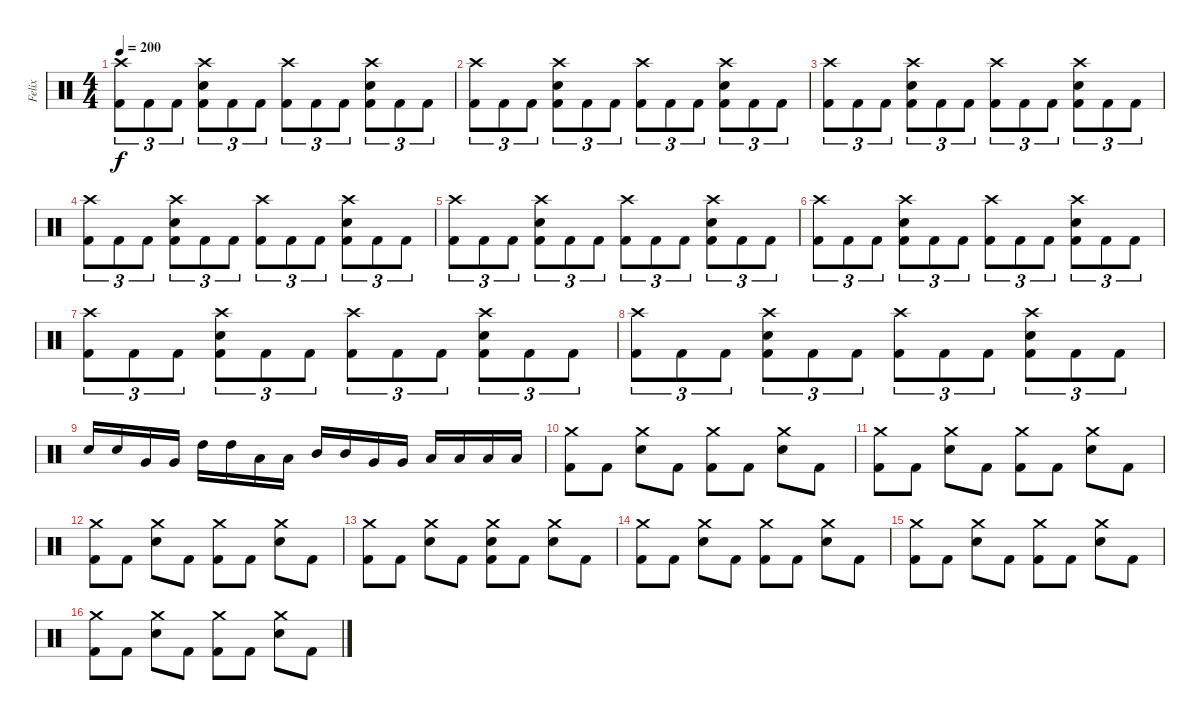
\track ("Felix" "Felix") {instrument percussion}
\staff {score}
\articulation defaults
\ts (4 4)
\tempo 200
\clef neutral
\ks c
("Crash high (hit)" "Kick (hit) 2").8{tu (3 2) dy f} "Kick (hit) 2".8{tu (3 2)} "Kick (hit) 2".8{tu (3 2)} ("Crash high (hit)" "Electric Snare (hit)" "Kick (hit) 2").8{tu (3 2)} "Kick (hit) 2".8{tu (3 2)} "Kick (hit) 2".8{tu (3 2)} ("Crash high (hit)" "Kick (hit) 2").8{tu (3 2)} "Kick (hit) 2".8{tu (3 2)} "Kick (hit) 2".8{tu (3 2)} ("Crash high (hit)" "Electric Snare (hit)" "Kick (hit) 2").8{tu (3 2)} "Kick (hit) 2".8{tu (3 2)} "Kick (hit) 2".8{tu (3 2)} |
("Crash high (hit)" "Kick (hit) 2").8{tu (3 2)} "Kick (hit) 2".8{tu (3 2)} "Kick (hit) 2".8{tu (3 2)} ("Crash high (hit)" "Electric Snare (hit)" "Kick (hit) 2").8{tu (3 2)} "Kick (hit) 2".8{tu (3 2)} "Kick (hit) 2".8{tu (3 2)} ("Crash high (hit)" "Kick (hit) 2").8{tu (3 2)} "Kick (hit) 2".8{tu (3 2)} "Kick (hit) 2".8{tu (3 2)} ("Crash high (hit)" "Electric Snare (hit)" "Kick (hit) 2").8{tu (3 2)} "Kick (hit) 2".8{tu (3 2)} "Kick (hit) 2".8{tu (3 2)} |
("Crash high (hit)" "Kick (hit) 2").8{tu (3 2)} "Kick (hit) 2".8{tu (3 2)} "Kick (hit) 2".8{tu (3 2)} ("Crash high (hit)" "Electric Snare (hit)" "Kick (hit) 2").8{tu (3 2)} "Kick (hit) 2".8{tu (3 2)} "Kick (hit) 2".8{tu (3 2)} ("Crash high (hit)" "Kick (hit) 2").8{tu (3 2)} "Kick (hit) 2".8{tu (3 2)} "Kick (hit) 2".8{tu (3 2)} ("Crash high (hit)" "Electric Snare (hit)" "Kick (hit) 2").8{tu (3 2)} "Kick (hit) 2".8{tu (3 2)} "Kick (hit) 2".8{tu (3 2)} |
("Crash high (hit)" "Kick (hit) 2").8{tu (3 2)} "Kick (hit) 2".8{tu (3 2)} "Kick (hit) 2".8{tu (3 2)} ("Crash high (hit)" "Electric Snare (hit)" "Kick (hit) 2").8{tu (3 2)} "Kick (hit) 2".8{tu (3 2)} "Kick (hit) 2".8{tu (3 2)} ("Crash high (hit)" "Kick (hit) 2").8{tu (3 2)} "Kick (hit) 2".8{tu (3 2)} "Kick (hit) 2".8{tu (3 2)} ("Crash high (hit)" "Electric Snare (hit)" "Kick (hit) 2").8{tu (3 2)} "Kick (hit) 2".8{tu (3 2)} "Kick (hit) 2".8{tu (3 2)} |
("Crash high (hit)" "Kick (hit) 2").8{tu (3 2)} "Kick (hit) 2".8{tu (3 2)} "Kick (hit) 2".8{tu (3 2)} ("Crash high (hit)" "Electric Snare (hit)" "Kick (hit) 2").8{tu (3 2)} "Kick (hit) 2".8{tu (3 2)} "Kick (hit) 2".8{tu (3 2)} ("Crash high (hit)" "Kick (hit) 2").8{tu (3 2)} "Kick (hit) 2".8{tu (3 2)} "Kick (hit) 2".8{tu (3 2)} ("Crash high (hit)" "Electric Snare (hit)" "Kick (hit) 2").8{tu (3 2)} "Kick (hit) 2".8{tu (3 2)} "Kick (hit) 2".8{tu (3 2)} |
("Crash high (hit)" "Kick (hit) 2").8{tu (3 2)} "Kick (hit) 2".8{tu (3 2)} "Kick (hit) 2".8{tu (3 2)} ("Crash high (hit)" "Electric Snare (hit)" "Kick (hit) 2").8{tu (3 2)} "Kick (hit) 2".8{tu (3 2)} "Kick (hit) 2".8{tu (3 2)} ("Crash high (hit)" "Kick (hit) 2").8{tu (3 2)} "Kick (hit) 2".8{tu (3 2)} "Kick (hit) 2".8{tu (3 2)} ("Crash high (hit)" "Electric Snare (hit)" "Kick (hit) 2").8{tu (3 2)} "Kick (hit) 2".8{tu (3 2)} "Kick (hit) 2".8{tu (3 2)} |
("Crash high (hit)" "Kick (hit) 2").8{tu (3 2)} "Kick (hit) 2".8{tu (3 2)} "Kick (hit) 2".8{tu (3 2)} ("Crash high (hit)" "Electric Snare (hit)" "Kick (hit) 2").8{tu (3 2)} "Kick (hit) 2".8{tu (3 2)} "Kick (hit) 2".8{tu (3 2)} ("Crash high (hit)" "Kick (hit) 2").8{tu (3 2)} "Kick (hit) 2".8{tu (3 2)} "Kick (hit) 2".8{tu (3 2)} ("Crash high (hit)" "Electric Snare (hit)" "Kick (hit) 2").8{tu (3 2)} "Kick (hit) 2".8{tu (3 2)} "Kick (hit) 2".8{tu (3 2)} |
("Crash high (hit)" "Kick (hit) 2").8{tu (3 2)} "Kick (hit) 2".8{tu (3 2)} "Kick (hit) 2".8{tu (3 2)} ("Crash high (hit)" "Electric Snare (hit)" "Kick (hit) 2").8{tu (3 2)} "Kick (hit) 2".8{tu (3 2)} "Kick (hit) 2".8{tu (3 2)} ("Crash high (hit)" "Kick (hit) 2").8{tu (3 2)} "Kick (hit) 2".8{tu (3 2)} "Kick (hit) 2".8{tu (3 2)} ("Crash high (hit)" "Electric Snare (hit)" "Kick (hit) 2").8{tu (3 2)} "Kick (hit) 2".8{tu (3 2)} "Kick (hit) 2".8{tu (3 2)} |
"Electric Snare (hit)".16 "Electric Snare (hit)".16 "Very Low Tom (hit)".16 "Very Low Tom (hit)".16 "High Tom (hit)".16 "High Tom (hit)".16 "Low Tom (hit)".16 "Low Tom (hit)".16 "Mid Tom (hit)".16 "Mid Tom (hit)".16 "Very Low Tom (hit)".16 "Very Low Tom (hit)".16 "Low Tom (hit)".16 "Low Tom (hit)".16 "Low Floor Tom (hit)".16 "Low Floor Tom (hit)".16 |
("Crash medium (hit)" "Kick (hit) 2").8 "Kick (hit) 2".8 ("Crash medium (hit)" "Electric Snare (hit)").8 "Kick (hit) 2".8 ("Crash medium (hit)" "Kick (hit) 2").8 "Kick (hit) 2".8 ("Crash medium (hit)" "Electric Snare (hit)").8 "Kick (hit) 2".8 |
("Crash medium (hit)" "Kick (hit) 2").8 "Kick (hit) 2".8 ("Crash medium (hit)" "Electric Snare (hit)").8 "Kick (hit) 2".8 ("Crash medium (hit)" "Kick (hit) 2").8 "Kick (hit) 2".8 ("Crash medium (hit)" "Electric Snare (hit)").8 "Kick (hit) 2".8 |
("Crash medium (hit)" "Kick (hit) 2").8 "Kick (hit) 2".8 ("Crash medium (hit)" "Electric Snare (hit)").8 "Kick (hit) 2".8 ("Crash medium (hit)" "Kick (hit) 2").8 "Kick (hit) 2".8 ("Crash medium (hit)" "Electric Snare (hit)").8 "Kick (hit) 2".8 |
("Crash medium (hit)" "Kick (hit) 2").8 "Kick (hit) 2".8 ("Crash medium (hit)" "Electric Snare (hit)").8 "Kick (hit) 2".8 ("Crash medium (hit)" "Electric Snare (hit)" "Kick (hit) 2").8 "Kick (hit) 2".8 ("Crash medium (hit)" "Electric Snare (hit)").8 "Kick (hit) 2".8 |
("Crash medium (hit)" "Kick (hit) 2").8 "Kick (hit) 2".8 ("Crash medium (hit)" "Electric Snare (hit)").8 "Kick (hit) 2".8 ("Crash medium (hit)" "Kick (hit) 2").8 "Kick (hit) 2".8 ("Crash medium (hit)" "Electric Snare (hit)").8 "Kick (hit) 2".8 |
("Crash medium (hit)" "Kick (hit) 2").8 "Kick (hit) 2".8 ("Crash medium (hit)" "Electric Snare (hit)").8 "Kick (hit) 2".8 ("Crash medium (hit)" "Kick (hit) 2").8 "Kick (hit) 2".8 ("Crash medium (hit)" "Electric Snare (hit)").8 "Kick (hit) 2".8 |
("Crash medium (hit)" "Kick (hit) 2").8 "Kick (hit) 2".8 ("Crash medium (hit)" "Electric Snare (hit)").8 "Kick (hit) 2".8 ("Crash medium (hit)" "Kick (hit) 2").8 "Kick (hit) 2".8 ("Crash medium (hit)" "Electric Snare (hit)").8 "Kick (hit) 2".8
